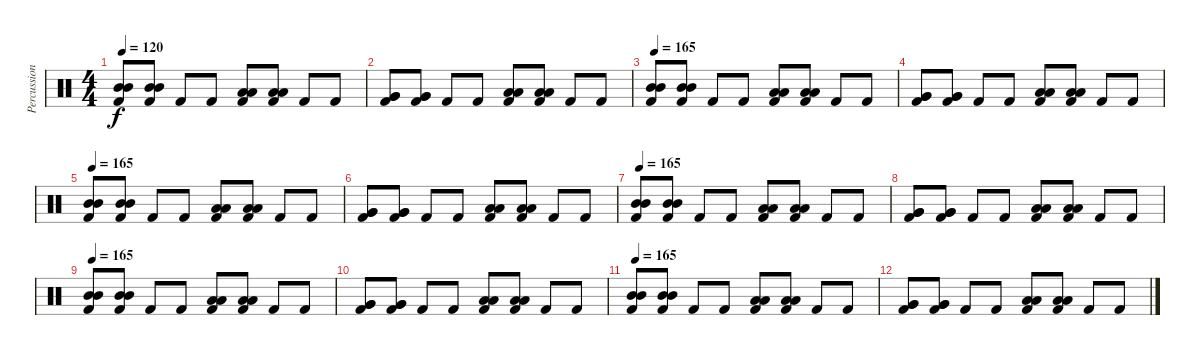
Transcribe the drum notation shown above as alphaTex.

\track ("Percussion" "Percussion") {instrument percussion}
\staff {score}
\articulation defaults
\ts (4 4)
\tempo 120
\tempo 175
\tempo 120
\clef neutral
\ks c
("Mid Tom (hit)" "Mid Tom (hit)" "Kick (hit) 2").8{dy f} ("Mid Tom (hit)" "Mid Tom (hit)" "Kick (hit) 2").8 "Kick (hit) 2".8 "Kick (hit) 2".8 ("Low Tom (hit)" "Low Tom (hit)" "Kick (hit) 2").8 ("Low Tom (hit)" "Low Tom (hit)" "Kick (hit) 2").8 "Kick (hit) 2".8 "Kick (hit) 2".8 |
("Very Low Tom (hit)" "Very Low Tom (hit)" "Kick (hit) 2").8 ("Very Low Tom (hit)" "Very Low Tom (hit)" "Kick (hit) 2").8 "Kick (hit) 2".8 "Kick (hit) 2".8 ("Low Floor Tom (hit)" "Low Floor Tom (hit)" "Kick (hit) 2").8 ("Low Floor Tom (hit)" "Low Floor Tom (hit)" "Kick (hit) 2").8 "Kick (hit) 2".8 "Kick (hit) 2".8 |
\tempo 165
("Mid Tom (hit)" "Mid Tom (hit)" "Kick (hit) 2").8 ("Mid Tom (hit)" "Mid Tom (hit)" "Kick (hit) 2").8 "Kick (hit) 2".8 "Kick (hit) 2".8 ("Low Tom (hit)" "Low Tom (hit)" "Kick (hit) 2").8 ("Low Tom (hit)" "Low Tom (hit)" "Kick (hit) 2").8 "Kick (hit) 2".8 "Kick (hit) 2".8 |
("Very Low Tom (hit)" "Very Low Tom (hit)" "Kick (hit) 2").8 ("Very Low Tom (hit)" "Very Low Tom (hit)" "Kick (hit) 2").8 "Kick (hit) 2".8 "Kick (hit) 2".8 ("Low Floor Tom (hit)" "Low Floor Tom (hit)" "Kick (hit) 2").8 ("Low Floor Tom (hit)" "Low Floor Tom (hit)" "Kick (hit) 2").8 "Kick (hit) 2".8 "Kick (hit) 2".8 |
\tempo 165
("Mid Tom (hit)" "Mid Tom (hit)" "Kick (hit) 2").8 ("Mid Tom (hit)" "Mid Tom (hit)" "Kick (hit) 2").8 "Kick (hit) 2".8 "Kick (hit) 2".8 ("Low Tom (hit)" "Low Tom (hit)" "Kick (hit) 2").8 ("Low Tom (hit)" "Low Tom (hit)" "Kick (hit) 2").8 "Kick (hit) 2".8 "Kick (hit) 2".8 |
("Very Low Tom (hit)" "Very Low Tom (hit)" "Kick (hit) 2").8 ("Very Low Tom (hit)" "Very Low Tom (hit)" "Kick (hit) 2").8 "Kick (hit) 2".8 "Kick (hit) 2".8 ("Low Floor Tom (hit)" "Low Floor Tom (hit)" "Kick (hit) 2").8 ("Low Floor Tom (hit)" "Low Floor Tom (hit)" "Kick (hit) 2").8 "Kick (hit) 2".8 "Kick (hit) 2".8 |
\tempo 165
("Mid Tom (hit)" "Mid Tom (hit)" "Kick (hit) 2").8 ("Mid Tom (hit)" "Mid Tom (hit)" "Kick (hit) 2").8 "Kick (hit) 2".8 "Kick (hit) 2".8 ("Low Tom (hit)" "Low Tom (hit)" "Kick (hit) 2").8 ("Low Tom (hit)" "Low Tom (hit)" "Kick (hit) 2").8 "Kick (hit) 2".8 "Kick (hit) 2".8 |
("Very Low Tom (hit)" "Very Low Tom (hit)" "Kick (hit) 2").8 ("Very Low Tom (hit)" "Very Low Tom (hit)" "Kick (hit) 2").8 "Kick (hit) 2".8 "Kick (hit) 2".8 ("Low Floor Tom (hit)" "Low Floor Tom (hit)" "Kick (hit) 2").8 ("Low Floor Tom (hit)" "Low Floor Tom (hit)" "Kick (hit) 2").8 "Kick (hit) 2".8 "Kick (hit) 2".8 |
\tempo 165
("Mid Tom (hit)" "Mid Tom (hit)" "Kick (hit) 2").8 ("Mid Tom (hit)" "Mid Tom (hit)" "Kick (hit) 2").8 "Kick (hit) 2".8 "Kick (hit) 2".8 ("Low Tom (hit)" "Low Tom (hit)" "Kick (hit) 2").8 ("Low Tom (hit)" "Low Tom (hit)" "Kick (hit) 2").8 "Kick (hit) 2".8 "Kick (hit) 2".8 |
("Very Low Tom (hit)" "Very Low Tom (hit)" "Kick (hit) 2").8 ("Very Low Tom (hit)" "Very Low Tom (hit)" "Kick (hit) 2").8 "Kick (hit) 2".8 "Kick (hit) 2".8 ("Low Floor Tom (hit)" "Low Floor Tom (hit)" "Kick (hit) 2").8 ("Low Floor Tom (hit)" "Low Floor Tom (hit)" "Kick (hit) 2").8 "Kick (hit) 2".8 "Kick (hit) 2".8 |
\tempo 165
("Mid Tom (hit)" "Mid Tom (hit)" "Kick (hit) 2").8 ("Mid Tom (hit)" "Mid Tom (hit)" "Kick (hit) 2").8 "Kick (hit) 2".8 "Kick (hit) 2".8 ("Low Tom (hit)" "Low Tom (hit)" "Kick (hit) 2").8 ("Low Tom (hit)" "Low Tom (hit)" "Kick (hit) 2").8 "Kick (hit) 2".8 "Kick (hit) 2".8 |
("Very Low Tom (hit)" "Very Low Tom (hit)" "Kick (hit) 2").8 ("Very Low Tom (hit)" "Very Low Tom (hit)" "Kick (hit) 2").8 "Kick (hit) 2".8 "Kick (hit) 2".8 ("Low Floor Tom (hit)" "Low Floor Tom (hit)" "Kick (hit) 2").8 ("Low Floor Tom (hit)" "Low Floor Tom (hit)" "Kick (hit) 2").8 "Kick (hit) 2".8 "Kick (hit) 2".8
